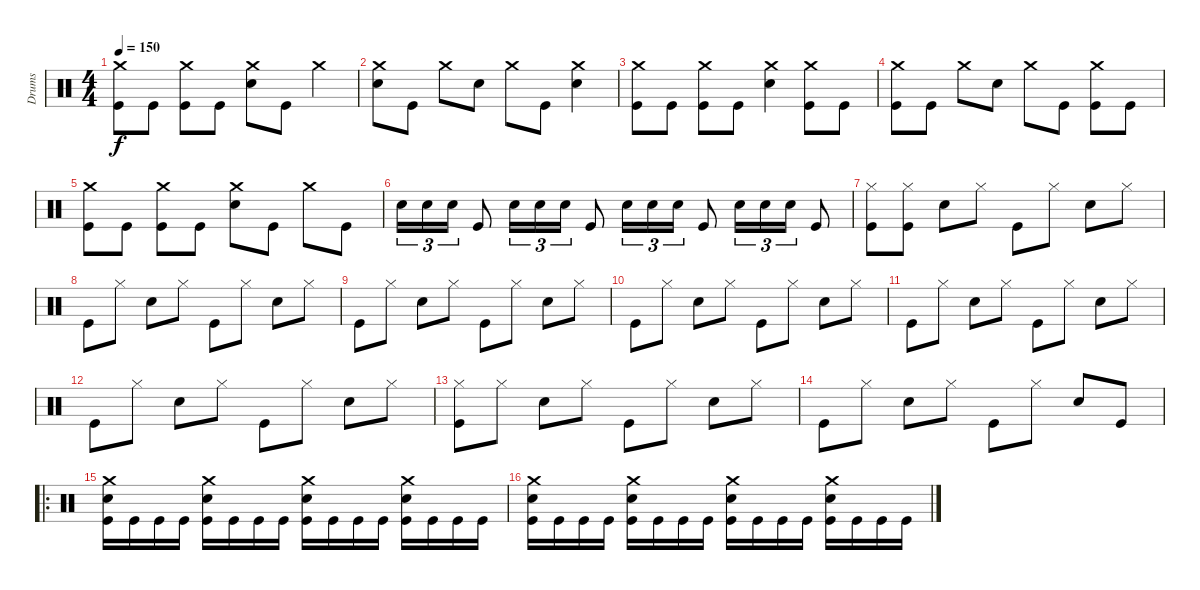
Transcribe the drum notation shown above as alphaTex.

\track ("Drums" "Drums") {instrument percussion}
\staff {score}
\articulation defaults
\ts (4 4)
\tempo 150
\clef neutral
\ks c
("Crash medium (hit)" "Kick (hit)").8{dy f} "Kick (hit)".8 ("Crash medium (hit)" "Kick (hit)").8 "Kick (hit)".8 ("Crash medium (hit)" "Electric Snare (hit)").8 "Kick (hit)".8 "Crash medium (hit)".4 |
("Crash medium (hit)" "Electric Snare (hit)").8 "Kick (hit)".8 "Crash medium (hit)".8 "Electric Snare (hit)".8 "Crash medium (hit)".8 "Kick (hit)".8 ("Crash medium (hit)" "Electric Snare (hit)").4 |
("Crash medium (hit)" "Kick (hit)").8 "Kick (hit)".8 ("Crash medium (hit)" "Kick (hit)").8 "Kick (hit)".8 ("Crash medium (hit)" "Electric Snare (hit)").4 ("Crash medium (hit)" "Kick (hit)").8 "Kick (hit)".8 |
("Crash medium (hit)" "Kick (hit)").8 "Kick (hit)".8 "Crash medium (hit)".8 "Electric Snare (hit)".8 "Crash medium (hit)".8 "Kick (hit)".8 ("Crash medium (hit)" "Kick (hit)").8 "Kick (hit)".8 |
("Crash medium (hit)" "Kick (hit)").8 "Kick (hit)".8 ("Crash medium (hit)" "Kick (hit)").8 "Kick (hit)".8 ("Crash medium (hit)" "Electric Snare (hit)").8 "Kick (hit)".8 "Crash medium (hit)".8 "Kick (hit)".8 |
"Electric Snare (hit)".16{tu (3 2)} "Electric Snare (hit)".16{tu (3 2)} "Electric Snare (hit)".16{tu (3 2)} "Kick (hit)".8 "Electric Snare (hit)".16{tu (3 2)} "Electric Snare (hit)".16{tu (3 2)} "Electric Snare (hit)".16{tu (3 2)} "Kick (hit)".8 "Electric Snare (hit)".16{tu (3 2)} "Electric Snare (hit)".16{tu (3 2)} "Electric Snare (hit)".16{tu (3 2)} "Kick (hit)".8 "Electric Snare (hit)".16{tu (3 2)} "Electric Snare (hit)".16{tu (3 2)} "Electric Snare (hit)".16{tu (3 2)} "Kick (hit)".8 |
("Hi-Hat (closed)" "Kick (hit)").8 ("Hi-Hat (closed)" "Kick (hit)").8 "Electric Snare (hit)".8 "Hi-Hat (closed)".8 "Kick (hit)".8 "Hi-Hat (closed)".8 "Electric Snare (hit)".8 "Hi-Hat (closed)".8 |
"Kick (hit)".8 "Hi-Hat (closed)".8 "Electric Snare (hit)".8 "Hi-Hat (closed)".8 "Kick (hit)".8 "Hi-Hat (closed)".8 "Electric Snare (hit)".8 "Hi-Hat (closed)".8 |
"Kick (hit)".8 "Hi-Hat (closed)".8 "Electric Snare (hit)".8 "Hi-Hat (closed)".8 "Kick (hit)".8 "Hi-Hat (closed)".8 "Electric Snare (hit)".8 "Hi-Hat (closed)".8 |
"Kick (hit)".8 "Hi-Hat (closed)".8 "Electric Snare (hit)".8 "Hi-Hat (closed)".8 "Kick (hit)".8 "Hi-Hat (closed)".8 "Electric Snare (hit)".8 "Hi-Hat (closed)".8 |
"Kick (hit)".8 "Hi-Hat (closed)".8 "Electric Snare (hit)".8 "Hi-Hat (closed)".8 "Kick (hit)".8 "Hi-Hat (closed)".8 "Electric Snare (hit)".8 "Hi-Hat (closed)".8 |
"Kick (hit)".8 "Hi-Hat (closed)".8 "Electric Snare (hit)".8 "Hi-Hat (closed)".8 "Kick (hit)".8 "Hi-Hat (closed)".8 "Electric Snare (hit)".8 "Hi-Hat (closed)".8 |
("Hi-Hat (closed)" "Kick (hit)").8 "Hi-Hat (closed)".8 "Electric Snare (hit)".8 "Hi-Hat (closed)".8 "Kick (hit)".8 "Hi-Hat (closed)".8 "Electric Snare (hit)".8 "Hi-Hat (closed)".8 |
"Kick (hit)".8 "Hi-Hat (closed)".8 "Electric Snare (hit)".8 "Hi-Hat (closed)".8 "Kick (hit)".8 "Hi-Hat (closed)".8 "Electric Snare (hit)".8 "Kick (hit)".8 |
\ro
("Crash medium (hit)" "Electric Snare (hit)" "Kick (hit)").16 "Kick (hit)".16 "Kick (hit)".16 "Kick (hit)".16 ("Crash medium (hit)" "Electric Snare (hit)" "Kick (hit)").16 "Kick (hit)".16 "Kick (hit)".16 "Kick (hit)".16 ("Crash medium (hit)" "Electric Snare (hit)" "Kick (hit)").16 "Kick (hit)".16 "Kick (hit)".16 "Kick (hit)".16 ("Crash medium (hit)" "Electric Snare (hit)" "Kick (hit)").16 "Kick (hit)".16 "Kick (hit)".16 "Kick (hit)".16 |
("Crash medium (hit)" "Electric Snare (hit)" "Kick (hit)").16 "Kick (hit)".16 "Kick (hit)".16 "Kick (hit)".16 ("Crash medium (hit)" "Electric Snare (hit)" "Kick (hit)").16 "Kick (hit)".16 "Kick (hit)".16 "Kick (hit)".16 ("Crash medium (hit)" "Electric Snare (hit)" "Kick (hit)").16 "Kick (hit)".16 "Kick (hit)".16 "Kick (hit)".16 ("Crash medium (hit)" "Electric Snare (hit)" "Kick (hit)").16 "Kick (hit)".16 "Kick (hit)".16 "Kick (hit)".16
